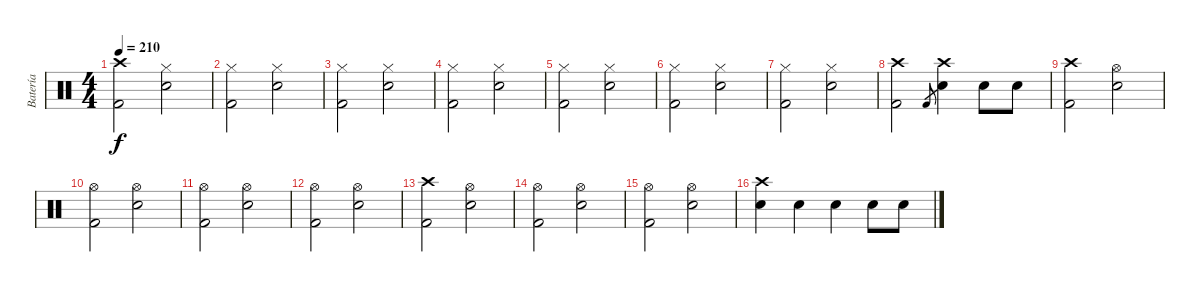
\track ("Batería" "Batería") {instrument percussion}
\staff {score}
\articulation defaults
\ts (4 4)
\tempo 210
\clef neutral
\ks c
("Crash high (hit)" "Kick (hit) 2").2{dy f} ("Hi-Hat (closed)" "Snare (hit) 2").2 |
("Hi-Hat (closed)" "Kick (hit) 2").2 ("Hi-Hat (closed)" "Snare (hit) 2").2 |
("Hi-Hat (closed)" "Kick (hit) 2").2 ("Hi-Hat (closed)" "Snare (hit) 2").2 |
("Hi-Hat (closed)" "Kick (hit) 2").2 ("Hi-Hat (closed)" "Snare (hit) 2").2 |
("Hi-Hat (closed)" "Kick (hit) 2").2 ("Hi-Hat (closed)" "Snare (hit) 2").2 |
("Hi-Hat (closed)" "Kick (hit) 2").2 ("Hi-Hat (closed)" "Snare (hit) 2").2 |
("Hi-Hat (closed)" "Kick (hit) 2").2 ("Hi-Hat (closed)" "Snare (hit) 2").2 |
("Crash high (hit)" "Kick (hit) 2").2 "Kick (hit) 2".8{gr} ("Crash high (hit)" "Snare (hit) 2").4 "Snare (hit) 2".8 "Snare (hit) 2".8 |
("Crash high (hit)" "Kick (hit) 2").2 ("Hi-Hat (open)" "Snare (hit) 2").2 |
("Hi-Hat (open)" "Kick (hit) 2").2 ("Hi-Hat (open)" "Snare (hit) 2").2 |
("Hi-Hat (open)" "Kick (hit) 2").2 ("Hi-Hat (open)" "Snare (hit) 2").2 |
("Hi-Hat (open)" "Kick (hit) 2").2 ("Hi-Hat (open)" "Snare (hit) 2").2 |
("Crash high (hit)" "Kick (hit) 2").2 ("Hi-Hat (open)" "Snare (hit) 2").2 |
("Hi-Hat (open)" "Kick (hit) 2").2 ("Hi-Hat (open)" "Snare (hit) 2").2 |
("Hi-Hat (open)" "Kick (hit) 2").2 ("Hi-Hat (open)" "Snare (hit) 2").2 |
("Snare (hit) 2" "Crash high (hit)").4 "Snare (hit) 2".4 "Snare (hit) 2".4 "Snare (hit) 2".8 "Snare (hit) 2".8
